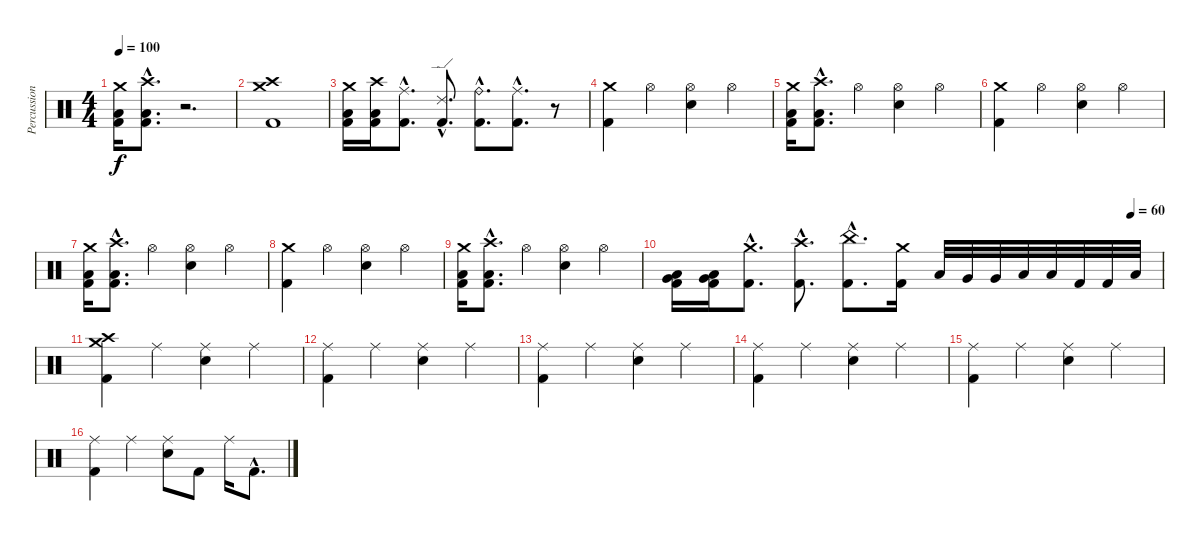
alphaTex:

\track ("Percussion" "Percussion") {instrument percussion}
\staff {score}
\articulation defaults
\ts (4 4)
\tempo 100
\clef neutral
\ks c
("Crash medium (hit)" "Low Tom (hit)" "Kick (hit) 2").16{dy f} ("Crash high (hit)"{hac} "Low Tom (hit)"{hac} "Kick (hit) 2"{hac}).8{d} r.2{d} |
("Crash medium (hit)" "Crash high (hit)" "Kick (hit) 2").1 |
("Crash medium (hit)" "Low Tom (hit)" "Kick (hit) 2").16 ("Crash high (hit)" "Low Tom (hit)" "Kick (hit) 2").16 ("Ride (middle)"{hac} "Kick (hit) 2"{hac}).8{d} ("Ride (edge) 2"{hac} "Kick (hit) 2"{hac}).8{d} ("Ride (bell)"{hac} "Kick (hit) 2"{hac}).8{d} ("Ride (middle)"{hac} "Kick (hit) 2"{hac}).8{d} r.8 |
("Crash medium (hit)" "Kick (hit) 2").4 "Hi-Hat (open)".4 ("Hi-Hat (open)" "Snare (hit) 2").4 "Hi-Hat (open)".4 |
("Crash medium (hit)" "Low Tom (hit)" "Kick (hit) 2").16 ("Crash high (hit)"{hac} "Low Tom (hit)"{hac} "Kick (hit) 2"{hac}).8{d} "Hi-Hat (open)".4 ("Hi-Hat (open)" "Snare (hit) 2").4 "Hi-Hat (open)".4 |
("Crash medium (hit)" "Kick (hit) 2").4 "Hi-Hat (open)".4 ("Hi-Hat (open)" "Snare (hit) 2").4 "Hi-Hat (open)".4 |
("Crash medium (hit)" "Low Tom (hit)" "Kick (hit) 2").16 ("Crash high (hit)"{hac} "Low Tom (hit)"{hac} "Kick (hit) 2"{hac}).8{d} "Hi-Hat (open)".4 ("Hi-Hat (open)" "Snare (hit) 2").4 "Hi-Hat (open)".4 |
("Crash medium (hit)" "Kick (hit) 2").4 "Hi-Hat (open)".4 ("Hi-Hat (open)" "Snare (hit) 2").4 "Hi-Hat (open)".4 |
("Crash medium (hit)" "Low Tom (hit)" "Kick (hit) 2").16 ("Crash high (hit)"{hac} "Low Tom (hit)"{hac} "Kick (hit) 2"{hac}).8{d} "Hi-Hat (open)".4 ("Hi-Hat (open)" "Snare (hit) 2").4 "Hi-Hat (open)".4 |
\tempo (60 0.9375)
("Low Tom (hit)" "Very Low Tom (hit)" "Kick (hit) 2").16 ("Low Tom (hit)" "Very Low Tom (hit)" "Kick (hit) 2").16 ("Crash medium (hit)"{hac} "Kick (hit) 2"{hac}).8{d} ("Crash high (hit)"{hac} "Kick (hit) 2"{hac}).8{d} ("China (hit)"{hac} "Kick (hit) 2"{hac}).8{d} ("Crash medium (hit)" "Kick (hit) 2").16 "Low Tom (hit)".32 "Very Low Tom (hit)".32 "Very Low Tom (hit)".32 "Low Floor Tom (hit)".32 "Low Floor Tom (hit)".32 "Kick (hit) 2".32 "Kick (hit) 2".32 "Low Tom (hit)".32 |
("Crash high (hit)" "Crash medium (hit)" "Kick (hit) 2").4 "Ride (middle)".4 ("Ride (middle)" "Snare (hit) 2").4 "Ride (middle)".4 |
("Ride (middle)" "Kick (hit) 2").4 "Ride (middle)".4 ("Ride (middle)" "Snare (hit) 2").4 "Ride (middle)".4 |
("Ride (middle)" "Kick (hit) 2").4 "Ride (middle)".4 ("Ride (middle)" "Snare (hit) 2").4 "Ride (middle)".4 |
("Ride (middle)" "Kick (hit) 2").4 "Ride (middle)".4 ("Ride (middle)" "Snare (hit) 2").4 "Ride (middle)".4 |
("Ride (middle)" "Kick (hit) 2").4 "Ride (middle)".4 ("Ride (middle)" "Snare (hit) 2").4 "Ride (middle)".4 |
("Ride (middle)" "Kick (hit) 2").4 "Ride (middle)".4 ("Ride (middle)" "Snare (hit) 2").8 "Kick (hit) 2".8 "Ride (middle)".16 "Kick (hit) 2"{hac}.8{d}
